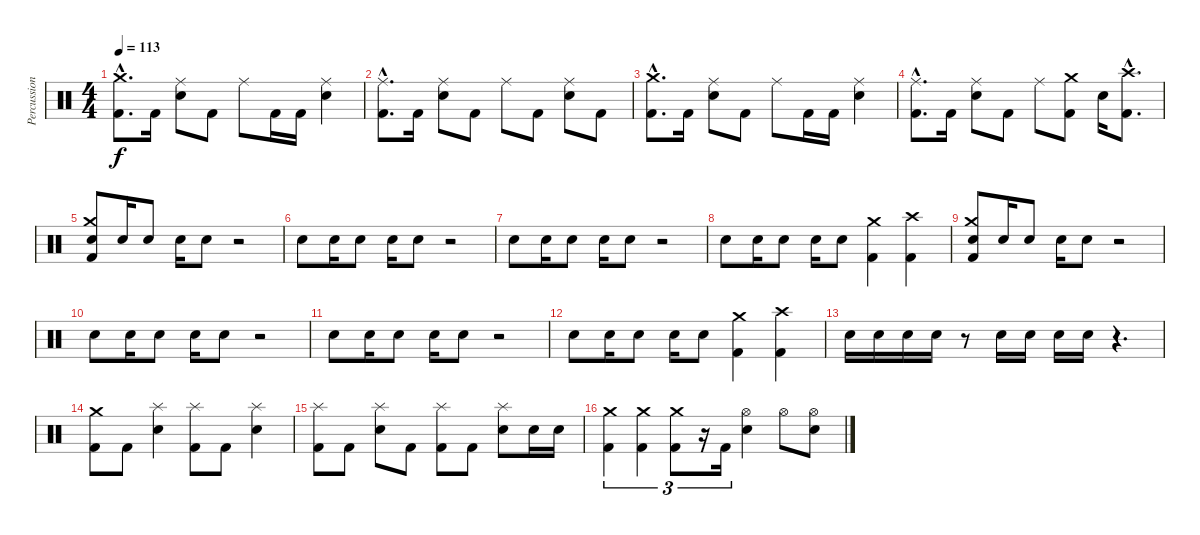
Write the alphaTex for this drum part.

\track ("Percussion" "Percussion") {instrument percussion}
\staff {score}
\articulation defaults
\ts (4 4)
\tempo 113
\clef neutral
\ks c
("Kick (hit) 2"{hac} "Crash medium (hit)"{hac}).8{d dy f} "Kick (hit) 2".16 ("Electric Snare (hit)" "Ride (middle)").8 "Kick (hit) 2".8 "Ride (middle)".8 "Kick (hit) 2".16 "Kick (hit) 2".16 ("Electric Snare (hit)" "Ride (middle)").4 |
("Kick (hit) 2"{hac} "Ride (middle)"{hac}).8{d} "Kick (hit) 2".16 ("Electric Snare (hit)" "Ride (middle)").8 "Kick (hit) 2".8 "Ride (middle)".8 "Kick (hit) 2".8 ("Electric Snare (hit)" "Ride (middle)").8 "Kick (hit) 2".8 |
("Kick (hit) 2"{hac} "Crash medium (hit)"{hac}).8{d} "Kick (hit) 2".16 ("Electric Snare (hit)" "Ride (middle)").8 "Kick (hit) 2".8 "Ride (middle)".8 "Kick (hit) 2".16 "Kick (hit) 2".16 ("Electric Snare (hit)" "Ride (middle)").4 |
("Kick (hit) 2"{hac} "Ride (middle)"{hac}).8{d} "Kick (hit) 2".16 ("Electric Snare (hit)" "Ride (middle)").8 "Kick (hit) 2".8 "Ride (middle)".8 ("Kick (hit) 2" "Crash medium (hit)").8 "Electric Snare (hit)".16 ("Kick (hit) 2"{hac} "Crash high (hit)"{hac}).8{d} |
("Kick (hit) 2" "Electric Snare (hit)" "Crash medium (hit)").8 "Electric Snare (hit)".16 "Electric Snare (hit)".8 "Electric Snare (hit)".16 "Electric Snare (hit)".8 r.2 |
"Electric Snare (hit)".8 "Electric Snare (hit)".16 "Electric Snare (hit)".8 "Electric Snare (hit)".16 "Electric Snare (hit)".8 r.2 |
"Electric Snare (hit)".8 "Electric Snare (hit)".16 "Electric Snare (hit)".8 "Electric Snare (hit)".16 "Electric Snare (hit)".8 r.2 |
"Electric Snare (hit)".8 "Electric Snare (hit)".16 "Electric Snare (hit)".8 "Electric Snare (hit)".16 "Electric Snare (hit)".8 ("Kick (hit) 2" "Crash medium (hit)").4 ("Kick (hit) 2" "Crash high (hit)").4 |
("Kick (hit) 2" "Electric Snare (hit)" "Crash medium (hit)").8 "Electric Snare (hit)".16 "Electric Snare (hit)".8 "Electric Snare (hit)".16 "Electric Snare (hit)".8 r.2 |
"Electric Snare (hit)".8 "Electric Snare (hit)".16 "Electric Snare (hit)".8 "Electric Snare (hit)".16 "Electric Snare (hit)".8 r.2 |
"Electric Snare (hit)".8 "Electric Snare (hit)".16 "Electric Snare (hit)".8 "Electric Snare (hit)".16 "Electric Snare (hit)".8 r.2 |
"Electric Snare (hit)".8 "Electric Snare (hit)".16 "Electric Snare (hit)".8 "Electric Snare (hit)".16 "Electric Snare (hit)".8 ("Kick (hit) 2" "Crash medium (hit)").4 ("Kick (hit) 2" "Crash high (hit)").4 |
"Electric Snare (hit)".16 "Electric Snare (hit)".16 "Electric Snare (hit)".16 "Electric Snare (hit)".16 r.8 "Electric Snare (hit)".16 "Electric Snare (hit)".16 "Electric Snare (hit)".16 "Electric Snare (hit)".16 r.4{d} |
("Kick (hit) 2" "Crash medium (hit)").8 "Kick (hit) 2".8 ("Snare (hit) 2" "Splash (hit)").4 ("Kick (hit) 2" "Splash (hit)").8 "Kick (hit) 2".8 ("Snare (hit) 2" "Splash (hit)").4 |
("Kick (hit) 2" "Splash (hit)").8 "Kick (hit) 2".8 ("Snare (hit) 2" "Splash (hit)").8 "Kick (hit) 2".8 ("Kick (hit) 2" "Splash (hit)").8 "Kick (hit) 2".8 ("Snare (hit) 2" "Splash (hit)").8 "Snare (hit) 2".16 "Snare (hit) 2".16 |
("Kick (hit) 2" "Crash medium (hit)").4{tu (3 2)} ("Kick (hit) 2" "Crash medium (hit)").4{tu (3 2)} ("Kick (hit) 2" "Crash medium (hit)").8{tu (3 2)} r.16{tu (3 2)} "Kick (hit) 2".16{tu (3 2)} ("Electric Snare (hit)" "Hi-Hat (open)").4 "Hi-Hat (open)".8 ("Electric Snare (hit)" "Hi-Hat (open)").8
